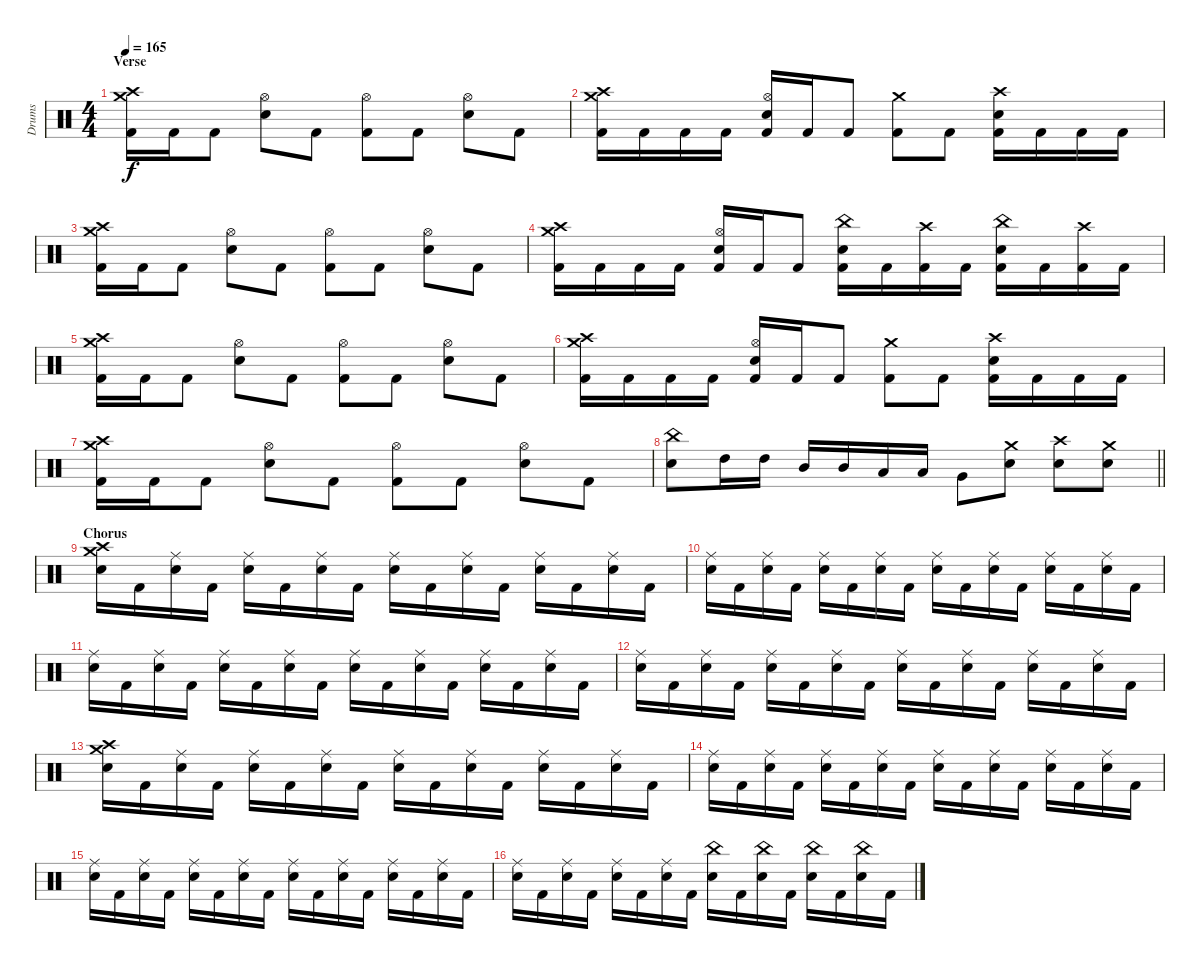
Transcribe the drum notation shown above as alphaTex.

\track ("Drums" "Drums") {instrument percussion}
\staff {score}
\articulation defaults
\ts (4 4)
\section ("" "Verse")
\tempo 165
\clef neutral
\ks c
("Crash medium (hit)" "Crash high (hit)" "Kick (hit) 2").16{dy f} "Kick (hit) 2".16 "Kick (hit) 2".8 ("Hi-Hat (open)" "Electric Snare (hit)").8 "Kick (hit) 2".8 ("Hi-Hat (open)" "Kick (hit) 2").8 "Kick (hit) 2".8 ("Hi-Hat (open)" "Electric Snare (hit)").8 "Kick (hit) 2".8 |
("Crash medium (hit)" "Crash high (hit)" "Kick (hit) 2").16 "Kick (hit) 2".16 "Kick (hit) 2".16 "Kick (hit) 2".16 ("Hi-Hat (open)" "Electric Snare (hit)" "Kick (hit) 2").16 "Kick (hit) 2".16 "Kick (hit) 2".8 ("Crash medium (hit)" "Kick (hit) 2").8 "Kick (hit) 2".8 ("Crash high (hit)" "Electric Snare (hit)" "Kick (hit) 2").16 "Kick (hit) 2".16 "Kick (hit) 2".16 "Kick (hit) 2".16 |
("Crash medium (hit)" "Crash high (hit)" "Kick (hit) 2").16 "Kick (hit) 2".16 "Kick (hit) 2".8 ("Hi-Hat (open)" "Electric Snare (hit)").8 "Kick (hit) 2".8 ("Hi-Hat (open)" "Kick (hit) 2").8 "Kick (hit) 2".8 ("Hi-Hat (open)" "Electric Snare (hit)").8 "Kick (hit) 2".8 |
("Crash medium (hit)" "Crash high (hit)" "Kick (hit) 2").16 "Kick (hit) 2".16 "Kick (hit) 2".16 "Kick (hit) 2".16 ("Hi-Hat (open)" "Electric Snare (hit)" "Kick (hit) 2").16 "Kick (hit) 2".16 "Kick (hit) 2".8 ("China (hit)" "Electric Snare (hit)" "Kick (hit) 2").16 "Kick (hit) 2".16 ("Crash high (hit)" "Kick (hit) 2").16 "Kick (hit) 2".16 ("China (hit)" "Electric Snare (hit)" "Kick (hit) 2").16 "Kick (hit) 2".16 ("Crash high (hit)" "Kick (hit) 2").16 "Kick (hit) 2".16 |
("Crash medium (hit)" "Crash high (hit)" "Kick (hit) 2").16 "Kick (hit) 2".16 "Kick (hit) 2".8 ("Hi-Hat (open)" "Electric Snare (hit)").8 "Kick (hit) 2".8 ("Hi-Hat (open)" "Kick (hit) 2").8 "Kick (hit) 2".8 ("Hi-Hat (open)" "Electric Snare (hit)").8 "Kick (hit) 2".8 |
("Crash medium (hit)" "Crash high (hit)" "Kick (hit) 2").16 "Kick (hit) 2".16 "Kick (hit) 2".16 "Kick (hit) 2".16 ("Hi-Hat (open)" "Electric Snare (hit)" "Kick (hit) 2").16 "Kick (hit) 2".16 "Kick (hit) 2".8 ("Crash medium (hit)" "Kick (hit) 2").8 "Kick (hit) 2".8 ("Crash high (hit)" "Electric Snare (hit)" "Kick (hit) 2").16 "Kick (hit) 2".16 "Kick (hit) 2".16 "Kick (hit) 2".16 |
("Crash medium (hit)" "Crash high (hit)" "Kick (hit) 2").16 "Kick (hit) 2".16 "Kick (hit) 2".8 ("Hi-Hat (open)" "Electric Snare (hit)").8 "Kick (hit) 2".8 ("Hi-Hat (open)" "Kick (hit) 2").8 "Kick (hit) 2".8 ("Hi-Hat (open)" "Electric Snare (hit)").8 "Kick (hit) 2".8 |
\barLineRight lightlight
("China (hit)" "Electric Snare (hit)").8 "High Tom (hit)".16 "High Tom (hit)".16 "Mid Tom (hit)".16 "Mid Tom (hit)".16 "Low Tom (hit)".16 "Low Tom (hit)".16 "Very Low Tom (hit)".8 ("Crash medium (hit)" "Electric Snare (hit)").8 ("Crash high (hit)" "Electric Snare (hit)").8 ("Crash medium (hit)" "Electric Snare (hit)").8 |
\section ("" "Chorus")
("Crash medium (hit)" "Crash high (hit)" "Electric Snare (hit)").16 "Kick (hit) 2".16 ("Ride (middle)" "Electric Snare (hit)").16 "Kick (hit) 2".16 ("Ride (middle)" "Electric Snare (hit)").16 "Kick (hit) 2".16 ("Ride (middle)" "Electric Snare (hit)").16 "Kick (hit) 2".16 ("Ride (middle)" "Electric Snare (hit)").16 "Kick (hit) 2".16 ("Ride (middle)" "Electric Snare (hit)").16 "Kick (hit) 2".16 ("Ride (middle)" "Electric Snare (hit)").16 "Kick (hit) 2".16 ("Ride (middle)" "Electric Snare (hit)").16 "Kick (hit) 2".16 |
("Ride (middle)" "Electric Snare (hit)").16 "Kick (hit) 2".16 ("Ride (middle)" "Electric Snare (hit)").16 "Kick (hit) 2".16 ("Ride (middle)" "Electric Snare (hit)").16 "Kick (hit) 2".16 ("Ride (middle)" "Electric Snare (hit)").16 "Kick (hit) 2".16 ("Ride (middle)" "Electric Snare (hit)").16 "Kick (hit) 2".16 ("Ride (middle)" "Electric Snare (hit)").16 "Kick (hit) 2".16 ("Ride (middle)" "Electric Snare (hit)").16 "Kick (hit) 2".16 ("Ride (middle)" "Electric Snare (hit)").16 "Kick (hit) 2".16 |
("Ride (middle)" "Electric Snare (hit)").16 "Kick (hit) 2".16 ("Ride (middle)" "Electric Snare (hit)").16 "Kick (hit) 2".16 ("Ride (middle)" "Electric Snare (hit)").16 "Kick (hit) 2".16 ("Ride (middle)" "Electric Snare (hit)").16 "Kick (hit) 2".16 ("Ride (middle)" "Electric Snare (hit)").16 "Kick (hit) 2".16 ("Ride (middle)" "Electric Snare (hit)").16 "Kick (hit) 2".16 ("Ride (middle)" "Electric Snare (hit)").16 "Kick (hit) 2".16 ("Ride (middle)" "Electric Snare (hit)").16 "Kick (hit) 2".16 |
("Ride (middle)" "Electric Snare (hit)").16 "Kick (hit) 2".16 ("Ride (middle)" "Electric Snare (hit)").16 "Kick (hit) 2".16 ("Ride (middle)" "Electric Snare (hit)").16 "Kick (hit) 2".16 ("Ride (middle)" "Electric Snare (hit)").16 "Kick (hit) 2".16 ("Ride (middle)" "Electric Snare (hit)").16 "Kick (hit) 2".16 ("Ride (middle)" "Electric Snare (hit)").16 "Kick (hit) 2".16 ("Ride (middle)" "Electric Snare (hit)").16 "Kick (hit) 2".16 ("Ride (middle)" "Electric Snare (hit)").16 "Kick (hit) 2".16 |
("Crash medium (hit)" "Crash high (hit)" "Electric Snare (hit)").16 "Kick (hit) 2".16 ("Ride (middle)" "Electric Snare (hit)").16 "Kick (hit) 2".16 ("Ride (middle)" "Electric Snare (hit)").16 "Kick (hit) 2".16 ("Ride (middle)" "Electric Snare (hit)").16 "Kick (hit) 2".16 ("Ride (middle)" "Electric Snare (hit)").16 "Kick (hit) 2".16 ("Ride (middle)" "Electric Snare (hit)").16 "Kick (hit) 2".16 ("Ride (middle)" "Electric Snare (hit)").16 "Kick (hit) 2".16 ("Ride (middle)" "Electric Snare (hit)").16 "Kick (hit) 2".16 |
("Ride (middle)" "Electric Snare (hit)").16 "Kick (hit) 2".16 ("Ride (middle)" "Electric Snare (hit)").16 "Kick (hit) 2".16 ("Ride (middle)" "Electric Snare (hit)").16 "Kick (hit) 2".16 ("Ride (middle)" "Electric Snare (hit)").16 "Kick (hit) 2".16 ("Ride (middle)" "Electric Snare (hit)").16 "Kick (hit) 2".16 ("Ride (middle)" "Electric Snare (hit)").16 "Kick (hit) 2".16 ("Ride (middle)" "Electric Snare (hit)").16 "Kick (hit) 2".16 ("Ride (middle)" "Electric Snare (hit)").16 "Kick (hit) 2".16 |
("Ride (middle)" "Electric Snare (hit)").16 "Kick (hit) 2".16 ("Ride (middle)" "Electric Snare (hit)").16 "Kick (hit) 2".16 ("Ride (middle)" "Electric Snare (hit)").16 "Kick (hit) 2".16 ("Ride (middle)" "Electric Snare (hit)").16 "Kick (hit) 2".16 ("Ride (middle)" "Electric Snare (hit)").16 "Kick (hit) 2".16 ("Ride (middle)" "Electric Snare (hit)").16 "Kick (hit) 2".16 ("Ride (middle)" "Electric Snare (hit)").16 "Kick (hit) 2".16 ("Ride (middle)" "Electric Snare (hit)").16 "Kick (hit) 2".16 |
("Ride (middle)" "Electric Snare (hit)").16 "Kick (hit) 2".16 ("Ride (middle)" "Electric Snare (hit)").16 "Kick (hit) 2".16 ("Ride (middle)" "Electric Snare (hit)").16 "Kick (hit) 2".16 ("Ride (middle)" "Electric Snare (hit)").16 "Kick (hit) 2".16 ("China (hit)" "Electric Snare (hit)").16 "Kick (hit) 2".16 ("China (hit)" "Electric Snare (hit)").16 "Kick (hit) 2".16 ("China (hit)" "Electric Snare (hit)").16 "Kick (hit) 2".16 ("China (hit)" "Electric Snare (hit)").16 "Kick (hit) 2".16
